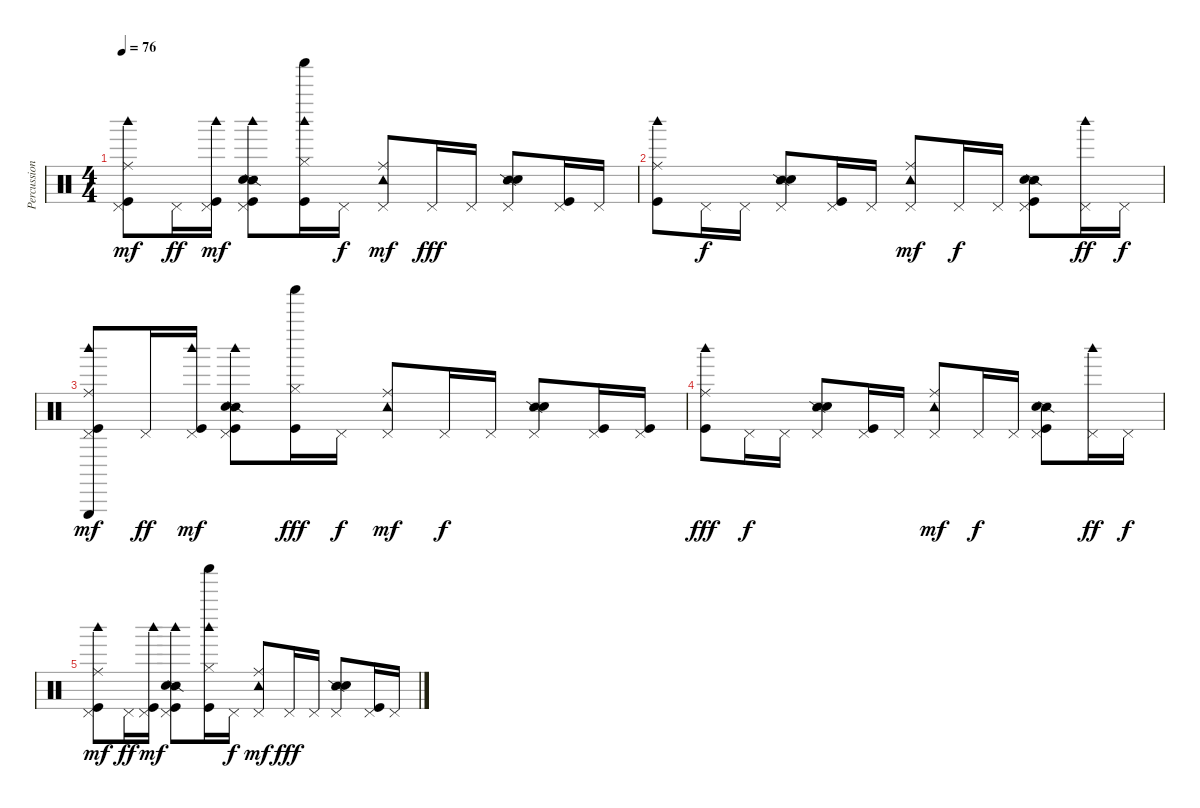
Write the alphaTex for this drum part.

\track ("Percussion" "Percussion") {instrument percussion}
\staff {score}
\articulation defaults
\ts (4 4)
\tempo 76
\clef neutral
\ks c
("Pedal Hi-Hat (hit)" "Ride (middle)" "Kick (hit)" "Woodblock high (hit)").8{dy mf volume 0} "Pedal Hi-Hat (hit)".16{dy ff} ("Pedal Hi-Hat (hit)" "Kick (hit)" "Woodblock high (hit)").16{dy mf} ("Pedal Hi-Hat (hit)" "Snare (side stick) 2" "Kick (hit)" "Woodblock high (hit)" "Hand Clap (hit)").8 ("Hi-Hat (closed)" "Shaker (hit)" "Kick (hit)" "Woodblock high (hit)").16 "Pedal Hi-Hat (hit)".16{dy f} ("Pedal Hi-Hat (hit)" "Ride (middle)" "Tambourine (hit)").8{dy mf} "Pedal Hi-Hat (hit)".16{dy fff} "Pedal Hi-Hat (hit)".16 ("Pedal Hi-Hat (hit)" "Snare (side stick) 2" "Hand Clap (hit)").8 ("Pedal Hi-Hat (hit)" "Kick (hit)").16 "Pedal Hi-Hat (hit)".16 |
("Ride (middle)" "Woodblock high (hit)" "Kick (hit)").8 "Pedal Hi-Hat (hit)".16{dy f} "Pedal Hi-Hat (hit)".16 ("Pedal Hi-Hat (hit)" "Snare (side stick) 2" "Hand Clap (hit)").8 ("Pedal Hi-Hat (hit)" "Kick (hit)").16 "Pedal Hi-Hat (hit)".16 ("Pedal Hi-Hat (hit)" "Tambourine (hit)" "Ride (middle)").8{dy mf} "Pedal Hi-Hat (hit)".16{dy f} "Pedal Hi-Hat (hit)".16 ("Pedal Hi-Hat (hit)" "Snare (side stick) 2" "Kick (hit)" "Hand Clap (hit)").8 ("Pedal Hi-Hat (hit)" "Woodblock high (hit)").16{dy ff} "Pedal Hi-Hat (hit)".16{dy f} |
("Pedal Hi-Hat (hit)" "Ride (middle)" "Kick (hit)" "Woodblock high (hit)" "Triangle (hit)").8{dy mf} "Pedal Hi-Hat (hit)".16{dy ff} ("Pedal Hi-Hat (hit)" "Kick (hit)" "Woodblock high (hit)").16{dy mf} ("Pedal Hi-Hat (hit)" "Snare (side stick) 2" "Kick (hit)" "Woodblock high (hit)" "Hand Clap (hit)").8 ("Hi-Hat (closed)" "Shaker (hit)" "Kick (hit)").16{dy fff} "Pedal Hi-Hat (hit)".16{dy f} ("Pedal Hi-Hat (hit)" "Ride (middle)" "Tambourine (hit)").8{dy mf} "Pedal Hi-Hat (hit)".16{dy f} "Pedal Hi-Hat (hit)".16 ("Pedal Hi-Hat (hit)" "Snare (side stick) 2" "Hand Clap (hit)").8 ("Pedal Hi-Hat (hit)" "Kick (hit)").16 ("Pedal Hi-Hat (hit)" "Kick (hit)").16 |
("Ride (middle)" "Woodblock high (hit)" "Kick (hit)").8{dy fff} "Pedal Hi-Hat (hit)".16{dy f} "Pedal Hi-Hat (hit)".16 ("Pedal Hi-Hat (hit)" "Snare (side stick) 2" "Hand Clap (hit)").8 ("Pedal Hi-Hat (hit)" "Kick (hit)").16 "Pedal Hi-Hat (hit)".16 ("Pedal Hi-Hat (hit)" "Tambourine (hit)" "Ride (middle)").8{dy mf} "Pedal Hi-Hat (hit)".16{dy f} "Pedal Hi-Hat (hit)".16 ("Pedal Hi-Hat (hit)" "Snare (side stick) 2" "Kick (hit)" "Hand Clap (hit)").8 ("Pedal Hi-Hat (hit)" "Woodblock high (hit)").16{dy ff} "Pedal Hi-Hat (hit)".16{dy f} |
("Pedal Hi-Hat (hit)" "Ride (middle)" "Kick (hit)" "Woodblock high (hit)").8{dy mf} "Pedal Hi-Hat (hit)".16{dy ff} ("Pedal Hi-Hat (hit)" "Kick (hit)" "Woodblock high (hit)").16{dy mf} ("Pedal Hi-Hat (hit)" "Snare (side stick) 2" "Kick (hit)" "Woodblock high (hit)" "Hand Clap (hit)").8 ("Hi-Hat (closed)" "Shaker (hit)" "Kick (hit)" "Woodblock high (hit)").16 "Pedal Hi-Hat (hit)".16{dy f} ("Pedal Hi-Hat (hit)" "Ride (middle)" "Tambourine (hit)").8{dy mf} "Pedal Hi-Hat (hit)".16{dy fff} "Pedal Hi-Hat (hit)".16 ("Pedal Hi-Hat (hit)" "Snare (side stick) 2" "Hand Clap (hit)").8 ("Pedal Hi-Hat (hit)" "Kick (hit)").16 "Pedal Hi-Hat (hit)".16
